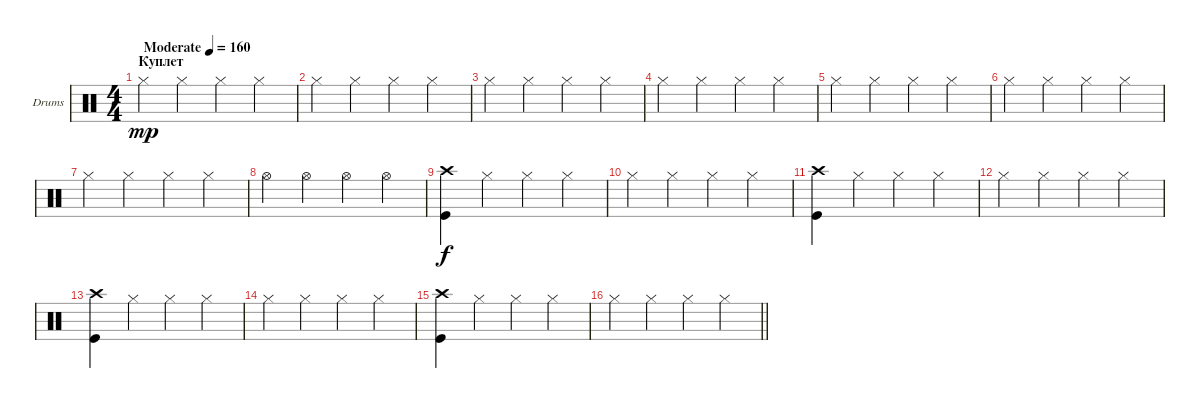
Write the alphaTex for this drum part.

\bracketExtendMode groupsimilarinstruments
\firstSystemTrackNameOrientation horizontal
\otherSystemsTrackNameOrientation horizontal
\track ("Drumkit" "Drums") {instrument percussion}
\staff {score}
\articulation defaults
\ts (4 4)
\beaming (8 2 2 2 2)
\section ("" "Куплет ")
\tempo (160 "Moderate")
\clef neutral
\ks c "Hi-Hat (closed)".4{dy mp} "Hi-Hat (closed)".4 "Hi-Hat (closed)".4 "Hi-Hat (closed)".4
|
"Hi-Hat (closed)".4 "Hi-Hat (closed)".4 "Hi-Hat (closed)".4 "Hi-Hat (closed)".4 |
"Hi-Hat (closed)".4 "Hi-Hat (closed)".4 "Hi-Hat (closed)".4 "Hi-Hat (closed)".4 |
"Hi-Hat (closed)".4 "Hi-Hat (closed)".4 "Hi-Hat (closed)".4 "Hi-Hat (closed)".4 |
"Hi-Hat (closed)".4 "Hi-Hat (closed)".4 "Hi-Hat (closed)".4 "Hi-Hat (closed)".4 |
"Hi-Hat (closed)".4 "Hi-Hat (closed)".4 "Hi-Hat (closed)".4 "Hi-Hat (closed)".4 |
"Hi-Hat (closed)".4 "Hi-Hat (closed)".4 "Hi-Hat (closed)".4 "Hi-Hat (closed)".4 |
"Hi-Hat (open)".4 "Hi-Hat (open)".4 "Hi-Hat (open)".4 "Hi-Hat (open)".4 |
("Crash high (hit)" "Kick (hit)").4{dy f} "Hi-Hat (closed)".4 "Hi-Hat (closed)".4 "Hi-Hat (closed)".4 |
"Hi-Hat (closed)".4 "Hi-Hat (closed)".4 "Hi-Hat (closed)".4 "Hi-Hat (closed)".4 |
("Crash high (hit)" "Kick (hit)").4 "Hi-Hat (closed)".4 "Hi-Hat (closed)".4 "Hi-Hat (closed)".4 |
"Hi-Hat (closed)".4 "Hi-Hat (closed)".4 "Hi-Hat (closed)".4 "Hi-Hat (closed)".4 |
("Crash high (hit)" "Kick (hit)").4 "Hi-Hat (closed)".4 "Hi-Hat (closed)".4 "Hi-Hat (closed)".4 |
"Hi-Hat (closed)".4 "Hi-Hat (closed)".4 "Hi-Hat (closed)".4 "Hi-Hat (closed)".4 |
("Crash high (hit)" "Kick (hit)").4 "Hi-Hat (closed)".4 "Hi-Hat (closed)".4 "Hi-Hat (closed)".4 |
\barLineRight lightlight "Hi-Hat (closed)".4 "Hi-Hat (closed)".4 "Hi-Hat (closed)".4 "Hi-Hat (closed)".4
